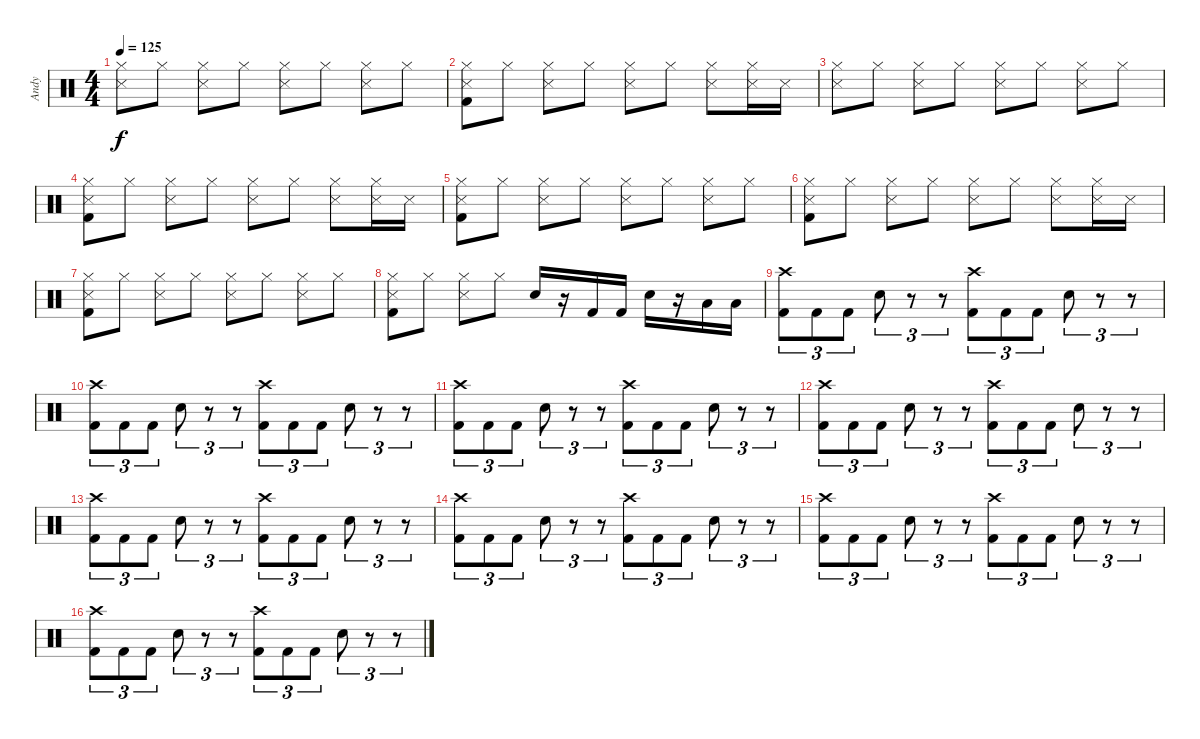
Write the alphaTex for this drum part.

\track ("Andy" "Andy") {instrument percussion}
\staff {score}
\articulation defaults
\ts (4 4)
\tempo 125
\clef neutral
\ks c
("Hi-Hat (closed)" "Snare (side stick) 3").8{dy f} "Hi-Hat (closed)".8 ("Hi-Hat (closed)" "Snare (side stick) 3").8 "Hi-Hat (closed)".8 ("Hi-Hat (closed)" "Snare (side stick) 3").8 "Hi-Hat (closed)".8 ("Hi-Hat (closed)" "Snare (side stick) 3").8 "Hi-Hat (closed)".8 |
("Hi-Hat (closed)" "Snare (side stick) 3" "Kick (hit) 2").8 "Hi-Hat (closed)".8 ("Hi-Hat (closed)" "Snare (side stick) 3").8 "Hi-Hat (closed)".8 ("Hi-Hat (closed)" "Snare (side stick) 3").8 "Hi-Hat (closed)".8 ("Hi-Hat (closed)" "Snare (side stick) 3").8 ("Hi-Hat (closed)" "Snare (side stick) 3").16 "Snare (side stick) 3".16 |
("Hi-Hat (closed)" "Snare (side stick) 3").8 "Hi-Hat (closed)".8 ("Hi-Hat (closed)" "Snare (side stick) 3").8 "Hi-Hat (closed)".8 ("Hi-Hat (closed)" "Snare (side stick) 3").8 "Hi-Hat (closed)".8 ("Hi-Hat (closed)" "Snare (side stick) 3").8 "Hi-Hat (closed)".8 |
("Hi-Hat (closed)" "Snare (side stick) 3" "Kick (hit) 2").8 "Hi-Hat (closed)".8 ("Hi-Hat (closed)" "Snare (side stick) 3").8 "Hi-Hat (closed)".8 ("Hi-Hat (closed)" "Snare (side stick) 3").8 "Hi-Hat (closed)".8 ("Hi-Hat (closed)" "Snare (side stick) 3").8 ("Hi-Hat (closed)" "Snare (side stick) 3").16 "Snare (side stick) 3".16 |
("Hi-Hat (closed)" "Snare (side stick) 3" "Kick (hit) 2").8 "Hi-Hat (closed)".8 ("Hi-Hat (closed)" "Snare (side stick) 3").8 "Hi-Hat (closed)".8 ("Hi-Hat (closed)" "Snare (side stick) 3").8 "Hi-Hat (closed)".8 ("Hi-Hat (closed)" "Snare (side stick) 3").8 "Hi-Hat (closed)".8 |
("Hi-Hat (closed)" "Snare (side stick) 3" "Kick (hit) 2").8 "Hi-Hat (closed)".8 ("Hi-Hat (closed)" "Snare (side stick) 3").8 "Hi-Hat (closed)".8 ("Hi-Hat (closed)" "Snare (side stick) 3").8 "Hi-Hat (closed)".8 ("Hi-Hat (closed)" "Snare (side stick) 3").8 ("Hi-Hat (closed)" "Snare (side stick) 3").16 "Snare (side stick) 3".16 |
("Hi-Hat (closed)" "Snare (side stick) 3" "Kick (hit) 2").8 "Hi-Hat (closed)".8 ("Hi-Hat (closed)" "Snare (side stick) 3").8 "Hi-Hat (closed)".8 ("Hi-Hat (closed)" "Snare (side stick) 3").8 "Hi-Hat (closed)".8 ("Hi-Hat (closed)" "Snare (side stick) 3").8 "Hi-Hat (closed)".8 |
("Hi-Hat (closed)" "Snare (side stick) 3" "Kick (hit) 2").8 "Hi-Hat (closed)".8 ("Hi-Hat (closed)" "Snare (side stick) 3").8 "Hi-Hat (closed)".8 "Snare (hit) 2".16 r.16 "Kick (hit) 2".16 "Kick (hit) 2".16 "Snare (hit) 2".16 r.16 "Low Floor Tom (hit)".16 "Low Floor Tom (hit)".16 |
("Crash high (hit)" "Kick (hit) 2").8{tu (3 2)} "Kick (hit) 2".8{tu (3 2)} "Kick (hit) 2".8{tu (3 2)} "Snare (hit) 2".8{tu (3 2)} r.8{tu (3 2)} r.8{tu (3 2)} ("Crash high (hit)" "Kick (hit) 2").8{tu (3 2)} "Kick (hit) 2".8{tu (3 2)} "Kick (hit) 2".8{tu (3 2)} "Snare (hit) 2".8{tu (3 2)} r.8{tu (3 2)} r.8{tu (3 2)} |
("Crash high (hit)" "Kick (hit) 2").8{tu (3 2)} "Kick (hit) 2".8{tu (3 2)} "Kick (hit) 2".8{tu (3 2)} "Snare (hit) 2".8{tu (3 2)} r.8{tu (3 2)} r.8{tu (3 2)} ("Crash high (hit)" "Kick (hit) 2").8{tu (3 2)} "Kick (hit) 2".8{tu (3 2)} "Kick (hit) 2".8{tu (3 2)} "Snare (hit) 2".8{tu (3 2)} r.8{tu (3 2)} r.8{tu (3 2)} |
("Crash high (hit)" "Kick (hit) 2").8{tu (3 2)} "Kick (hit) 2".8{tu (3 2)} "Kick (hit) 2".8{tu (3 2)} "Snare (hit) 2".8{tu (3 2)} r.8{tu (3 2)} r.8{tu (3 2)} ("Crash high (hit)" "Kick (hit) 2").8{tu (3 2)} "Kick (hit) 2".8{tu (3 2)} "Kick (hit) 2".8{tu (3 2)} "Snare (hit) 2".8{tu (3 2)} r.8{tu (3 2)} r.8{tu (3 2)} |
("Crash high (hit)" "Kick (hit) 2").8{tu (3 2)} "Kick (hit) 2".8{tu (3 2)} "Kick (hit) 2".8{tu (3 2)} "Snare (hit) 2".8{tu (3 2)} r.8{tu (3 2)} r.8{tu (3 2)} ("Crash high (hit)" "Kick (hit) 2").8{tu (3 2)} "Kick (hit) 2".8{tu (3 2)} "Kick (hit) 2".8{tu (3 2)} "Snare (hit) 2".8{tu (3 2)} r.8{tu (3 2)} r.8{tu (3 2)} |
("Crash high (hit)" "Kick (hit) 2").8{tu (3 2)} "Kick (hit) 2".8{tu (3 2)} "Kick (hit) 2".8{tu (3 2)} "Snare (hit) 2".8{tu (3 2)} r.8{tu (3 2)} r.8{tu (3 2)} ("Crash high (hit)" "Kick (hit) 2").8{tu (3 2)} "Kick (hit) 2".8{tu (3 2)} "Kick (hit) 2".8{tu (3 2)} "Snare (hit) 2".8{tu (3 2)} r.8{tu (3 2)} r.8{tu (3 2)} |
("Crash high (hit)" "Kick (hit) 2").8{tu (3 2)} "Kick (hit) 2".8{tu (3 2)} "Kick (hit) 2".8{tu (3 2)} "Snare (hit) 2".8{tu (3 2)} r.8{tu (3 2)} r.8{tu (3 2)} ("Crash high (hit)" "Kick (hit) 2").8{tu (3 2)} "Kick (hit) 2".8{tu (3 2)} "Kick (hit) 2".8{tu (3 2)} "Snare (hit) 2".8{tu (3 2)} r.8{tu (3 2)} r.8{tu (3 2)} |
("Crash high (hit)" "Kick (hit) 2").8{tu (3 2)} "Kick (hit) 2".8{tu (3 2)} "Kick (hit) 2".8{tu (3 2)} "Snare (hit) 2".8{tu (3 2)} r.8{tu (3 2)} r.8{tu (3 2)} ("Crash high (hit)" "Kick (hit) 2").8{tu (3 2)} "Kick (hit) 2".8{tu (3 2)} "Kick (hit) 2".8{tu (3 2)} "Snare (hit) 2".8{tu (3 2)} r.8{tu (3 2)} r.8{tu (3 2)} |
("Crash high (hit)" "Kick (hit) 2").8{tu (3 2)} "Kick (hit) 2".8{tu (3 2)} "Kick (hit) 2".8{tu (3 2)} "Snare (hit) 2".8{tu (3 2)} r.8{tu (3 2)} r.8{tu (3 2)} ("Crash high (hit)" "Kick (hit) 2").8{tu (3 2)} "Kick (hit) 2".8{tu (3 2)} "Kick (hit) 2".8{tu (3 2)} "Snare (hit) 2".8{tu (3 2)} r.8{tu (3 2)} r.8{tu (3 2)}
